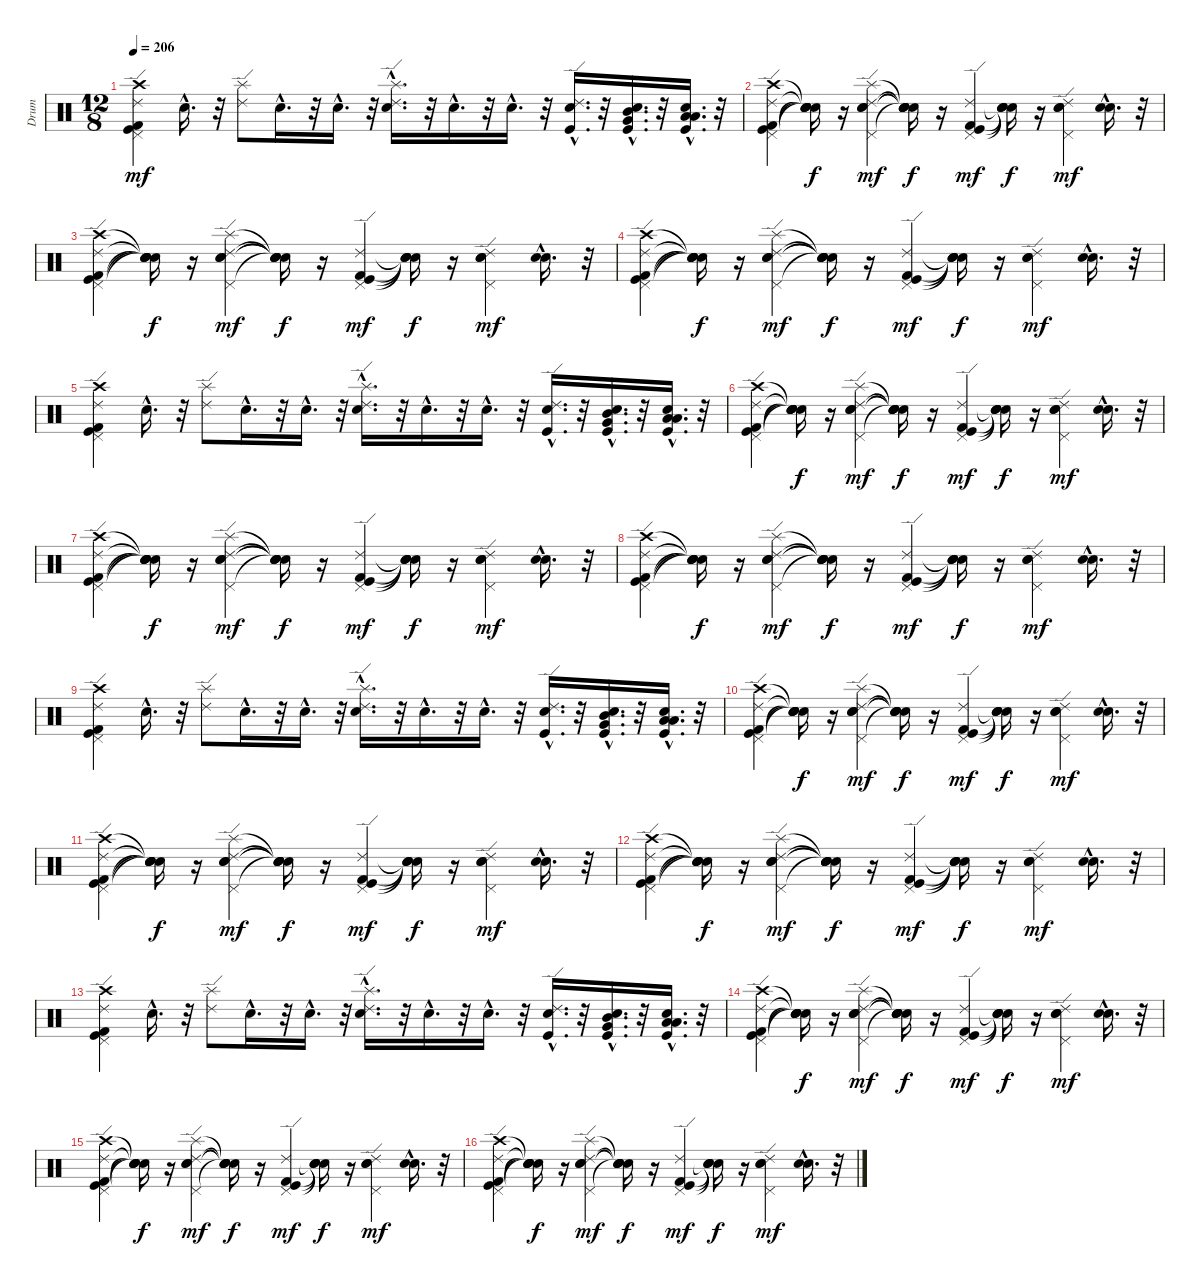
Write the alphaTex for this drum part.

\track ("Drum" "Drum") {instrument percussion}
\staff {score}
\articulation defaults
\ts (12 8)
\tempo 206
\clef neutral
\ks c
("Crash high (hit)" "Ride (edge) 2" "Kick (hit) 2" "Kick (hit)" "Pedal Hi-Hat (hit)").4{dy mf} "Snare (hit) 2"{hac}.16{d} r.32 ("Splash (hit)" "Ride (edge) 2").8 "Snare (hit) 2"{hac}.16{d} r.32 "Snare (hit) 2"{hac}.16{d} r.32 ("Electric Snare (hit)"{hac} "Splash (hit)"{hac} "Ride (edge) 2"{hac}).16{d} r.32 "Electric Snare (hit)"{hac}.16{d} r.32 "Electric Snare (hit)"{hac}.16{d} r.32 ("Snare (hit) 2"{hac} "Kick (hit)"{hac} "Ride (edge) 2"{hac}).16{d} r.32 ("Snare (hit) 2"{hac} "Kick (hit)"{hac} "Mid Tom (hit)"{hac} "Very Low Tom (hit)"{hac}).16{d} r.32 ("Snare (hit) 2"{hac} "Kick (hit)"{hac} "Low Tom (hit)"{hac} "Low Floor Tom (hit)"{hac}).16{d} r.32 |
("Pedal Hi-Hat (hit)" "Kick (hit)" "Kick (hit) 2" "Ride (edge) 2" "Crash high (hit)").4 ("Snare (hit)"{t} "Snare (hit)"{t} "Snare (hit)"{t} "Snare (hit)"{t} "Snare (hit)"{t}).16{dy f} r.16 ("Snare (hit) 2" "Electric Snare (hit)" "Pedal Hi-Hat (hit)" "Ride (edge) 2" "Splash (hit)").4{dy mf} ("Snare (hit)"{t} "Snare (hit)"{t} "Snare (hit)"{t} "Snare (hit)"{t} "Snare (hit)"{t}).16{dy f} r.16 ("Pedal Hi-Hat (hit)" "Kick (hit) 2" "Kick (hit)" "Ride (edge) 2").4{dy mf} ("Snare (hit)"{t} "Snare (hit)"{t} "Snare (hit)"{t} "Snare (hit)"{t}).16{dy f} r.16 ("Electric Snare (hit)" "Snare (hit) 2" "Pedal Hi-Hat (hit)" "Ride (edge) 2").4{dy mf} ("Electric Snare (hit)"{hac} "Snare (hit) 2"{hac}).16{d} r.32 |
("Crash high (hit)" "Ride (edge) 2" "Kick (hit) 2" "Kick (hit)" "Pedal Hi-Hat (hit)").4 ("Snare (hit)"{t} "Snare (hit)"{t} "Snare (hit)"{t} "Snare (hit)"{t} "Snare (hit)"{t}).16{dy f} r.16 ("Splash (hit)" "Ride (edge) 2" "Pedal Hi-Hat (hit)" "Electric Snare (hit)" "Snare (hit) 2").4{dy mf} ("Snare (hit)"{t} "Snare (hit)"{t} "Snare (hit)"{t} "Snare (hit)"{t} "Snare (hit)"{t}).16{dy f} r.16 ("Ride (edge) 2" "Kick (hit)" "Kick (hit) 2" "Pedal Hi-Hat (hit)").4{dy mf} ("Snare (hit)"{t} "Snare (hit)"{t} "Snare (hit)"{t} "Snare (hit)"{t}).16{dy f} r.16 ("Ride (edge) 2" "Pedal Hi-Hat (hit)" "Snare (hit) 2" "Electric Snare (hit)").4{dy mf} ("Snare (hit) 2"{hac} "Electric Snare (hit)"{hac}).16{d} r.32 |
("Pedal Hi-Hat (hit)" "Kick (hit)" "Kick (hit) 2" "Ride (edge) 2" "Crash high (hit)").4 ("Snare (hit)"{t} "Snare (hit)"{t} "Snare (hit)"{t} "Snare (hit)"{t} "Snare (hit)"{t}).16{dy f} r.16 ("Snare (hit) 2" "Electric Snare (hit)" "Pedal Hi-Hat (hit)" "Ride (edge) 2" "Splash (hit)").4{dy mf} ("Snare (hit)"{t} "Snare (hit)"{t} "Snare (hit)"{t} "Snare (hit)"{t} "Snare (hit)"{t}).16{dy f} r.16 ("Pedal Hi-Hat (hit)" "Kick (hit) 2" "Kick (hit)" "Ride (edge) 2").4{dy mf} ("Snare (hit)"{t} "Snare (hit)"{t} "Snare (hit)"{t} "Snare (hit)"{t}).16{dy f} r.16 ("Electric Snare (hit)" "Snare (hit) 2" "Pedal Hi-Hat (hit)" "Ride (edge) 2").4{dy mf} ("Electric Snare (hit)"{hac} "Snare (hit) 2"{hac}).16{d} r.32 |
("Pedal Hi-Hat (hit)" "Kick (hit)" "Kick (hit) 2" "Ride (edge) 2" "Crash high (hit)").4 "Snare (hit) 2"{hac}.16{d} r.32 ("Ride (edge) 2" "Splash (hit)").8 "Snare (hit) 2"{hac}.16{d} r.32 "Snare (hit) 2"{hac}.16{d} r.32 ("Ride (edge) 2"{hac} "Splash (hit)"{hac} "Electric Snare (hit)"{hac}).16{d} r.32 "Electric Snare (hit)"{hac}.16{d} r.32 "Electric Snare (hit)"{hac}.16{d} r.32 ("Ride (edge) 2"{hac} "Kick (hit)"{hac} "Snare (hit) 2"{hac}).16{d} r.32 ("Very Low Tom (hit)"{hac} "Mid Tom (hit)"{hac} "Kick (hit)"{hac} "Snare (hit) 2"{hac}).16{d} r.32 ("Low Floor Tom (hit)"{hac} "Low Tom (hit)"{hac} "Kick (hit)"{hac} "Snare (hit) 2"{hac}).16{d} r.32 |
("Pedal Hi-Hat (hit)" "Kick (hit)" "Kick (hit) 2" "Ride (edge) 2" "Crash high (hit)").4 ("Snare (hit)"{t} "Snare (hit)"{t} "Snare (hit)"{t} "Snare (hit)"{t} "Snare (hit)"{t}).16{dy f} r.16 ("Snare (hit) 2" "Electric Snare (hit)" "Pedal Hi-Hat (hit)" "Ride (edge) 2" "Splash (hit)").4{dy mf} ("Snare (hit)"{t} "Snare (hit)"{t} "Snare (hit)"{t} "Snare (hit)"{t} "Snare (hit)"{t}).16{dy f} r.16 ("Pedal Hi-Hat (hit)" "Kick (hit) 2" "Kick (hit)" "Ride (edge) 2").4{dy mf} ("Snare (hit)"{t} "Snare (hit)"{t} "Snare (hit)"{t} "Snare (hit)"{t}).16{dy f} r.16 ("Electric Snare (hit)" "Snare (hit) 2" "Pedal Hi-Hat (hit)" "Ride (edge) 2").4{dy mf} ("Electric Snare (hit)"{hac} "Snare (hit) 2"{hac}).16{d} r.32 |
("Crash high (hit)" "Ride (edge) 2" "Kick (hit) 2" "Kick (hit)" "Pedal Hi-Hat (hit)").4 ("Snare (hit)"{t} "Snare (hit)"{t} "Snare (hit)"{t} "Snare (hit)"{t} "Snare (hit)"{t}).16{dy f} r.16 ("Splash (hit)" "Ride (edge) 2" "Pedal Hi-Hat (hit)" "Electric Snare (hit)" "Snare (hit) 2").4{dy mf} ("Snare (hit)"{t} "Snare (hit)"{t} "Snare (hit)"{t} "Snare (hit)"{t} "Snare (hit)"{t}).16{dy f} r.16 ("Ride (edge) 2" "Kick (hit)" "Kick (hit) 2" "Pedal Hi-Hat (hit)").4{dy mf} ("Snare (hit)"{t} "Snare (hit)"{t} "Snare (hit)"{t} "Snare (hit)"{t}).16{dy f} r.16 ("Ride (edge) 2" "Pedal Hi-Hat (hit)" "Snare (hit) 2" "Electric Snare (hit)").4{dy mf} ("Snare (hit) 2"{hac} "Electric Snare (hit)"{hac}).16{d} r.32 |
("Pedal Hi-Hat (hit)" "Kick (hit)" "Kick (hit) 2" "Ride (edge) 2" "Crash high (hit)").4 ("Snare (hit)"{t} "Snare (hit)"{t} "Snare (hit)"{t} "Snare (hit)"{t} "Snare (hit)"{t}).16{dy f} r.16 ("Snare (hit) 2" "Electric Snare (hit)" "Pedal Hi-Hat (hit)" "Ride (edge) 2" "Splash (hit)").4{dy mf} ("Snare (hit)"{t} "Snare (hit)"{t} "Snare (hit)"{t} "Snare (hit)"{t} "Snare (hit)"{t}).16{dy f} r.16 ("Pedal Hi-Hat (hit)" "Kick (hit) 2" "Kick (hit)" "Ride (edge) 2").4{dy mf} ("Snare (hit)"{t} "Snare (hit)"{t} "Snare (hit)"{t} "Snare (hit)"{t}).16{dy f} r.16 ("Electric Snare (hit)" "Snare (hit) 2" "Pedal Hi-Hat (hit)" "Ride (edge) 2").4{dy mf} ("Electric Snare (hit)"{hac} "Snare (hit) 2"{hac}).16{d} r.32 |
("Pedal Hi-Hat (hit)" "Kick (hit)" "Kick (hit) 2" "Ride (edge) 2" "Crash high (hit)").4 "Snare (hit) 2"{hac}.16{d} r.32 ("Ride (edge) 2" "Splash (hit)").8 "Snare (hit) 2"{hac}.16{d} r.32 "Snare (hit) 2"{hac}.16{d} r.32 ("Ride (edge) 2"{hac} "Splash (hit)"{hac} "Electric Snare (hit)"{hac}).16{d} r.32 "Electric Snare (hit)"{hac}.16{d} r.32 "Electric Snare (hit)"{hac}.16{d} r.32 ("Ride (edge) 2"{hac} "Kick (hit)"{hac} "Snare (hit) 2"{hac}).16{d} r.32 ("Very Low Tom (hit)"{hac} "Mid Tom (hit)"{hac} "Kick (hit)"{hac} "Snare (hit) 2"{hac}).16{d} r.32 ("Low Floor Tom (hit)"{hac} "Low Tom (hit)"{hac} "Kick (hit)"{hac} "Snare (hit) 2"{hac}).16{d} r.32 |
("Pedal Hi-Hat (hit)" "Kick (hit)" "Kick (hit) 2" "Ride (edge) 2" "Crash high (hit)").4 ("Snare (hit)"{t} "Snare (hit)"{t} "Snare (hit)"{t} "Snare (hit)"{t} "Snare (hit)"{t}).16{dy f} r.16 ("Snare (hit) 2" "Electric Snare (hit)" "Pedal Hi-Hat (hit)" "Ride (edge) 2" "Splash (hit)").4{dy mf} ("Snare (hit)"{t} "Snare (hit)"{t} "Snare (hit)"{t} "Snare (hit)"{t} "Snare (hit)"{t}).16{dy f} r.16 ("Pedal Hi-Hat (hit)" "Kick (hit) 2" "Kick (hit)" "Ride (edge) 2").4{dy mf} ("Snare (hit)"{t} "Snare (hit)"{t} "Snare (hit)"{t} "Snare (hit)"{t}).16{dy f} r.16 ("Electric Snare (hit)" "Snare (hit) 2" "Pedal Hi-Hat (hit)" "Ride (edge) 2").4{dy mf} ("Electric Snare (hit)"{hac} "Snare (hit) 2"{hac}).16{d} r.32 |
("Crash high (hit)" "Ride (edge) 2" "Kick (hit) 2" "Kick (hit)" "Pedal Hi-Hat (hit)").4 ("Snare (hit)"{t} "Snare (hit)"{t} "Snare (hit)"{t} "Snare (hit)"{t} "Snare (hit)"{t}).16{dy f} r.16 ("Splash (hit)" "Ride (edge) 2" "Pedal Hi-Hat (hit)" "Electric Snare (hit)" "Snare (hit) 2").4{dy mf} ("Snare (hit)"{t} "Snare (hit)"{t} "Snare (hit)"{t} "Snare (hit)"{t} "Snare (hit)"{t}).16{dy f} r.16 ("Ride (edge) 2" "Kick (hit)" "Kick (hit) 2" "Pedal Hi-Hat (hit)").4{dy mf} ("Snare (hit)"{t} "Snare (hit)"{t} "Snare (hit)"{t} "Snare (hit)"{t}).16{dy f} r.16 ("Ride (edge) 2" "Pedal Hi-Hat (hit)" "Snare (hit) 2" "Electric Snare (hit)").4{dy mf} ("Snare (hit) 2"{hac} "Electric Snare (hit)"{hac}).16{d} r.32 |
("Pedal Hi-Hat (hit)" "Kick (hit)" "Kick (hit) 2" "Ride (edge) 2" "Crash high (hit)").4 ("Snare (hit)"{t} "Snare (hit)"{t} "Snare (hit)"{t} "Snare (hit)"{t} "Snare (hit)"{t}).16{dy f} r.16 ("Snare (hit) 2" "Electric Snare (hit)" "Pedal Hi-Hat (hit)" "Ride (edge) 2" "Splash (hit)").4{dy mf} ("Snare (hit)"{t} "Snare (hit)"{t} "Snare (hit)"{t} "Snare (hit)"{t} "Snare (hit)"{t}).16{dy f} r.16 ("Pedal Hi-Hat (hit)" "Kick (hit) 2" "Kick (hit)" "Ride (edge) 2").4{dy mf} ("Snare (hit)"{t} "Snare (hit)"{t} "Snare (hit)"{t} "Snare (hit)"{t}).16{dy f} r.16 ("Electric Snare (hit)" "Snare (hit) 2" "Pedal Hi-Hat (hit)" "Ride (edge) 2").4{dy mf} ("Electric Snare (hit)"{hac} "Snare (hit) 2"{hac}).16{d} r.32 |
("Pedal Hi-Hat (hit)" "Kick (hit)" "Kick (hit) 2" "Ride (edge) 2" "Crash high (hit)").4 "Snare (hit) 2"{hac}.16{d} r.32 ("Ride (edge) 2" "Splash (hit)").8 "Snare (hit) 2"{hac}.16{d} r.32 "Snare (hit) 2"{hac}.16{d} r.32 ("Ride (edge) 2"{hac} "Splash (hit)"{hac} "Electric Snare (hit)"{hac}).16{d} r.32 "Electric Snare (hit)"{hac}.16{d} r.32 "Electric Snare (hit)"{hac}.16{d} r.32 ("Ride (edge) 2"{hac} "Kick (hit)"{hac} "Snare (hit) 2"{hac}).16{d} r.32 ("Very Low Tom (hit)"{hac} "Mid Tom (hit)"{hac} "Kick (hit)"{hac} "Snare (hit) 2"{hac}).16{d} r.32 ("Low Floor Tom (hit)"{hac} "Low Tom (hit)"{hac} "Kick (hit)"{hac} "Snare (hit) 2"{hac}).16{d} r.32 |
("Pedal Hi-Hat (hit)" "Kick (hit)" "Kick (hit) 2" "Ride (edge) 2" "Crash high (hit)").4 ("Snare (hit)"{t} "Snare (hit)"{t} "Snare (hit)"{t} "Snare (hit)"{t} "Snare (hit)"{t}).16{dy f} r.16 ("Snare (hit) 2" "Electric Snare (hit)" "Pedal Hi-Hat (hit)" "Ride (edge) 2" "Splash (hit)").4{dy mf} ("Snare (hit)"{t} "Snare (hit)"{t} "Snare (hit)"{t} "Snare (hit)"{t} "Snare (hit)"{t}).16{dy f} r.16 ("Pedal Hi-Hat (hit)" "Kick (hit) 2" "Kick (hit)" "Ride (edge) 2").4{dy mf} ("Snare (hit)"{t} "Snare (hit)"{t} "Snare (hit)"{t} "Snare (hit)"{t}).16{dy f} r.16 ("Electric Snare (hit)" "Snare (hit) 2" "Pedal Hi-Hat (hit)" "Ride (edge) 2").4{dy mf} ("Electric Snare (hit)"{hac} "Snare (hit) 2"{hac}).16{d} r.32 |
("Crash high (hit)" "Ride (edge) 2" "Kick (hit) 2" "Kick (hit)" "Pedal Hi-Hat (hit)").4 ("Snare (hit)"{t} "Snare (hit)"{t} "Snare (hit)"{t} "Snare (hit)"{t} "Snare (hit)"{t}).16{dy f} r.16 ("Splash (hit)" "Ride (edge) 2" "Pedal Hi-Hat (hit)" "Electric Snare (hit)" "Snare (hit) 2").4{dy mf} ("Snare (hit)"{t} "Snare (hit)"{t} "Snare (hit)"{t} "Snare (hit)"{t} "Snare (hit)"{t}).16{dy f} r.16 ("Ride (edge) 2" "Kick (hit)" "Kick (hit) 2" "Pedal Hi-Hat (hit)").4{dy mf} ("Snare (hit)"{t} "Snare (hit)"{t} "Snare (hit)"{t} "Snare (hit)"{t}).16{dy f} r.16 ("Ride (edge) 2" "Pedal Hi-Hat (hit)" "Snare (hit) 2" "Electric Snare (hit)").4{dy mf} ("Snare (hit) 2"{hac} "Electric Snare (hit)"{hac}).16{d} r.32 |
("Pedal Hi-Hat (hit)" "Kick (hit)" "Kick (hit) 2" "Ride (edge) 2" "Crash high (hit)").4 ("Snare (hit)"{t} "Snare (hit)"{t} "Snare (hit)"{t} "Snare (hit)"{t} "Snare (hit)"{t}).16{dy f} r.16 ("Snare (hit) 2" "Electric Snare (hit)" "Pedal Hi-Hat (hit)" "Ride (edge) 2" "Splash (hit)").4{dy mf} ("Snare (hit)"{t} "Snare (hit)"{t} "Snare (hit)"{t} "Snare (hit)"{t} "Snare (hit)"{t}).16{dy f} r.16 ("Pedal Hi-Hat (hit)" "Kick (hit) 2" "Kick (hit)" "Ride (edge) 2").4{dy mf} ("Snare (hit)"{t} "Snare (hit)"{t} "Snare (hit)"{t} "Snare (hit)"{t}).16{dy f} r.16 ("Electric Snare (hit)" "Snare (hit) 2" "Pedal Hi-Hat (hit)" "Ride (edge) 2").4{dy mf} ("Electric Snare (hit)"{hac} "Snare (hit) 2"{hac}).16{d} r.32
